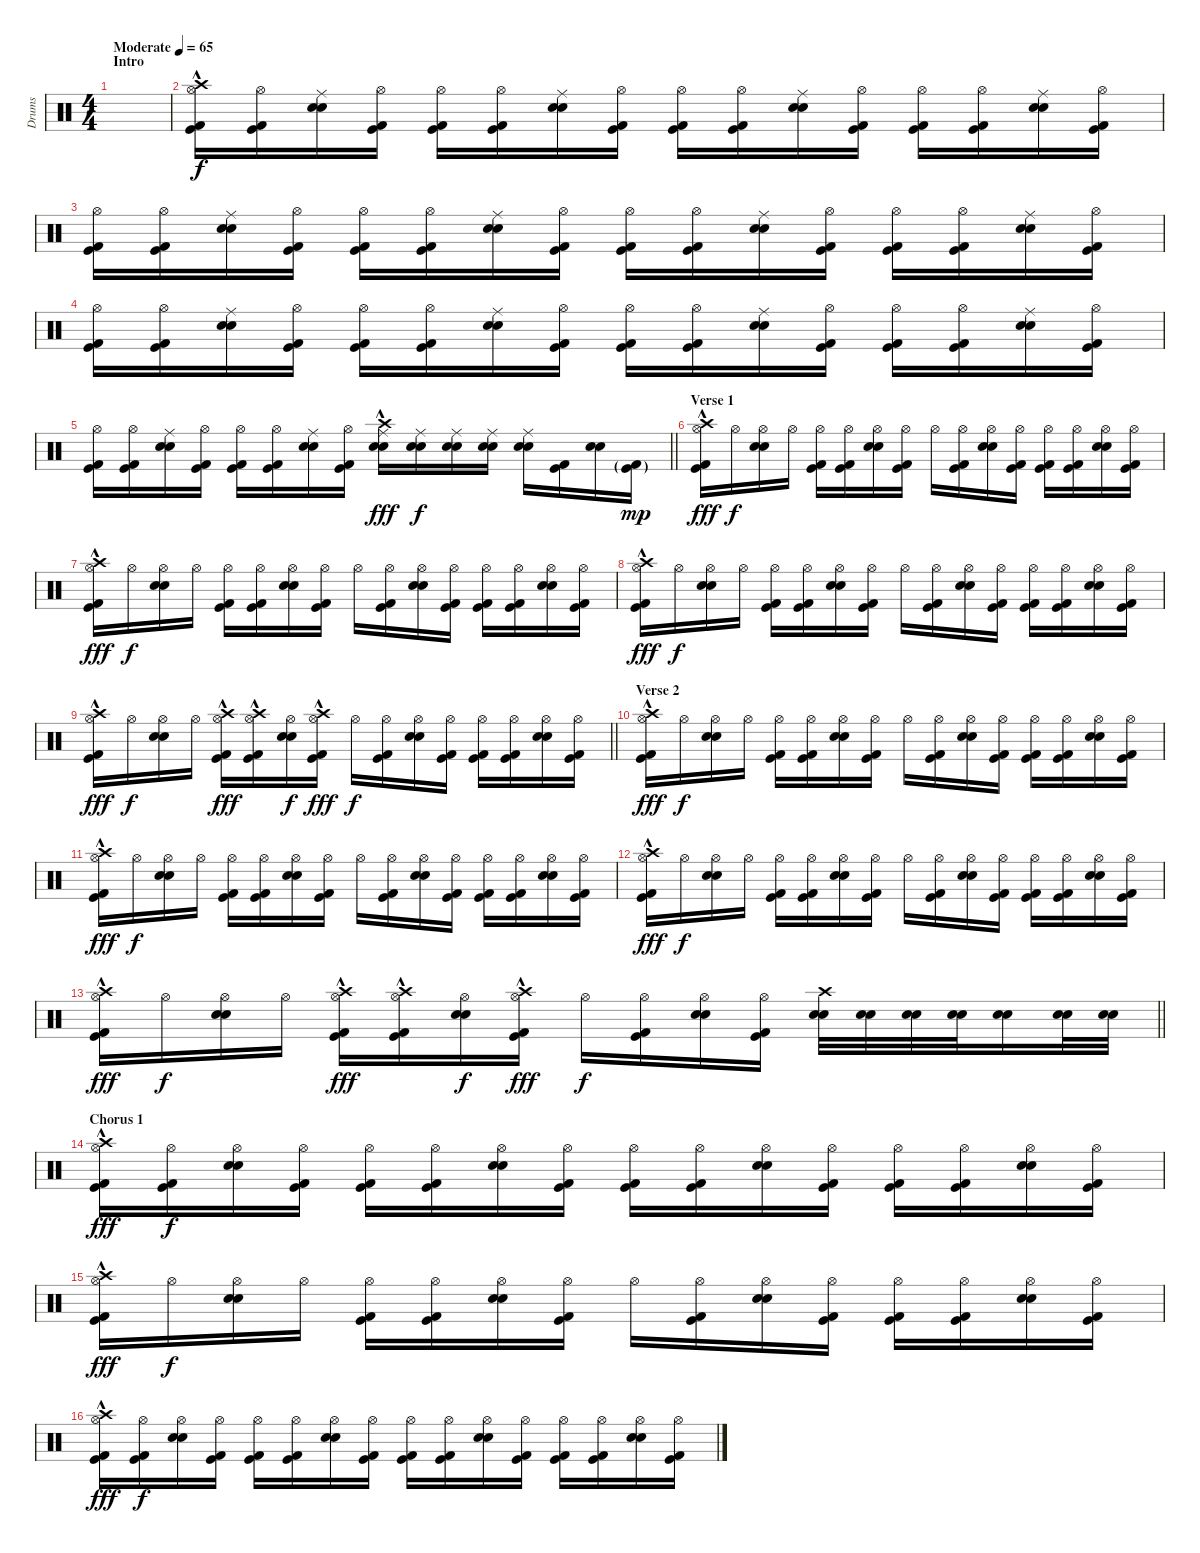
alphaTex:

\track ("Drums" "Drums") {instrument percussion}
\staff {score}
\articulation defaults
\ts (4 4)
\section ("" "Intro")
\tempo (65 "Moderate")
\clef neutral
\ks c
|
("Crash high (hit)"{hac} "Hi-Hat (open)" "Kick (hit) 2" "Kick (hit)").16 ("Hi-Hat (open)" "Kick (hit) 2" "Kick (hit)").16{dy f} ("Ride (middle)" "Electric Snare (hit)" "Snare (hit) 2").16 ("Hi-Hat (open)" "Kick (hit) 2" "Kick (hit)").16 ("Hi-Hat (open)" "Kick (hit) 2" "Kick (hit)").16 ("Hi-Hat (open)" "Kick (hit) 2" "Kick (hit)").16 ("Ride (middle)" "Electric Snare (hit)" "Snare (hit) 2").16 ("Hi-Hat (open)" "Kick (hit) 2" "Kick (hit)").16 ("Hi-Hat (open)" "Kick (hit) 2" "Kick (hit)").16 ("Hi-Hat (open)" "Kick (hit) 2" "Kick (hit)").16 ("Ride (middle)" "Electric Snare (hit)" "Snare (hit) 2").16 ("Hi-Hat (open)" "Kick (hit) 2" "Kick (hit)").16 ("Hi-Hat (open)" "Kick (hit) 2" "Kick (hit)").16 ("Hi-Hat (open)" "Kick (hit) 2" "Kick (hit)").16 ("Ride (middle)" "Electric Snare (hit)" "Snare (hit) 2").16 ("Hi-Hat (open)" "Kick (hit) 2" "Kick (hit)").16 |
("Hi-Hat (open)" "Kick (hit) 2" "Kick (hit)").16 ("Hi-Hat (open)" "Kick (hit) 2" "Kick (hit)").16 ("Ride (middle)" "Electric Snare (hit)" "Snare (hit) 2").16 ("Hi-Hat (open)" "Kick (hit) 2" "Kick (hit)").16 ("Hi-Hat (open)" "Kick (hit) 2" "Kick (hit)").16 ("Hi-Hat (open)" "Kick (hit) 2" "Kick (hit)").16 ("Ride (middle)" "Electric Snare (hit)" "Snare (hit) 2").16 ("Hi-Hat (open)" "Kick (hit) 2" "Kick (hit)").16 ("Hi-Hat (open)" "Kick (hit) 2" "Kick (hit)").16 ("Hi-Hat (open)" "Kick (hit) 2" "Kick (hit)").16 ("Ride (middle)" "Electric Snare (hit)" "Snare (hit) 2").16 ("Hi-Hat (open)" "Kick (hit) 2" "Kick (hit)").16 ("Hi-Hat (open)" "Kick (hit) 2" "Kick (hit)").16 ("Hi-Hat (open)" "Kick (hit) 2" "Kick (hit)").16 ("Ride (middle)" "Electric Snare (hit)" "Snare (hit) 2").16 ("Hi-Hat (open)" "Kick (hit) 2" "Kick (hit)").16 |
("Hi-Hat (open)" "Kick (hit) 2" "Kick (hit)").16 ("Hi-Hat (open)" "Kick (hit) 2" "Kick (hit)").16 ("Ride (middle)" "Electric Snare (hit)" "Snare (hit) 2").16 ("Hi-Hat (open)" "Kick (hit) 2" "Kick (hit)").16 ("Hi-Hat (open)" "Kick (hit) 2" "Kick (hit)").16 ("Hi-Hat (open)" "Kick (hit) 2" "Kick (hit)").16 ("Ride (middle)" "Electric Snare (hit)" "Snare (hit) 2").16 ("Hi-Hat (open)" "Kick (hit) 2" "Kick (hit)").16 ("Hi-Hat (open)" "Kick (hit) 2" "Kick (hit)").16 ("Hi-Hat (open)" "Kick (hit) 2" "Kick (hit)").16 ("Ride (middle)" "Electric Snare (hit)" "Snare (hit) 2").16 ("Hi-Hat (open)" "Kick (hit) 2" "Kick (hit)").16 ("Hi-Hat (open)" "Kick (hit) 2" "Kick (hit)").16 ("Hi-Hat (open)" "Kick (hit) 2" "Kick (hit)").16 ("Ride (middle)" "Electric Snare (hit)" "Snare (hit) 2").16 ("Hi-Hat (open)" "Kick (hit) 2" "Kick (hit)").16 |
\barLineRight lightlight
("Hi-Hat (open)" "Kick (hit) 2" "Kick (hit)").16 ("Hi-Hat (open)" "Kick (hit) 2" "Kick (hit)").16 ("Ride (middle)" "Electric Snare (hit)" "Snare (hit) 2").16 ("Hi-Hat (open)" "Kick (hit) 2" "Kick (hit)").16 ("Hi-Hat (open)" "Kick (hit) 2" "Kick (hit)").16 ("Hi-Hat (open)" "Kick (hit) 2" "Kick (hit)").16 ("Ride (middle)" "Electric Snare (hit)" "Snare (hit) 2").16 ("Hi-Hat (open)" "Kick (hit) 2" "Kick (hit)").16 ("Crash high (hit)"{hac} "Ride (middle)" "Electric Snare (hit)" "Snare (hit) 2").16{dy fff} ("Ride (middle)" "Electric Snare (hit)" "Snare (hit) 2").16{dy f} ("Ride (middle)" "Electric Snare (hit)" "Snare (hit) 2").16 ("Ride (middle)" "Electric Snare (hit)" "Snare (hit) 2").16 ("Ride (middle)" "Electric Snare (hit)" "Snare (hit) 2").16 ("Kick (hit) 2" "Kick (hit)").16 ("Electric Snare (hit)" "Snare (hit) 2").16 ("Kick (hit) 2"{g} "Kick (hit)"{g}).16{dy mp} |
\section ("" "Verse 1")
("Crash high (hit)"{hac} "Hi-Hat (open)" "Kick (hit) 2" "Kick (hit)").16{dy fff} "Hi-Hat (open)".16{dy f} ("Hi-Hat (open)" "Electric Snare (hit)" "Snare (hit) 2").16 "Hi-Hat (open)".16 ("Hi-Hat (open)" "Kick (hit) 2" "Kick (hit)").16 ("Hi-Hat (open)" "Kick (hit) 2" "Kick (hit)").16 ("Hi-Hat (open)" "Electric Snare (hit)" "Snare (hit) 2").16 ("Hi-Hat (open)" "Kick (hit) 2" "Kick (hit)").16 "Hi-Hat (open)".16 ("Hi-Hat (open)" "Kick (hit) 2" "Kick (hit)").16 ("Hi-Hat (open)" "Electric Snare (hit)" "Snare (hit) 2").16 ("Hi-Hat (open)" "Kick (hit) 2" "Kick (hit)").16 ("Hi-Hat (open)" "Kick (hit) 2" "Kick (hit)").16 ("Hi-Hat (open)" "Kick (hit) 2" "Kick (hit)").16 ("Hi-Hat (open)" "Electric Snare (hit)" "Snare (hit) 2").16 ("Hi-Hat (open)" "Kick (hit) 2" "Kick (hit)").16 |
("Crash high (hit)"{hac} "Hi-Hat (open)" "Kick (hit) 2" "Kick (hit)").16{dy fff} "Hi-Hat (open)".16{dy f} ("Hi-Hat (open)" "Electric Snare (hit)" "Snare (hit) 2").16 "Hi-Hat (open)".16 ("Hi-Hat (open)" "Kick (hit) 2" "Kick (hit)").16 ("Hi-Hat (open)" "Kick (hit) 2" "Kick (hit)").16 ("Hi-Hat (open)" "Electric Snare (hit)" "Snare (hit) 2").16 ("Hi-Hat (open)" "Kick (hit) 2" "Kick (hit)").16 "Hi-Hat (open)".16 ("Hi-Hat (open)" "Kick (hit) 2" "Kick (hit)").16 ("Hi-Hat (open)" "Electric Snare (hit)" "Snare (hit) 2").16 ("Hi-Hat (open)" "Kick (hit) 2" "Kick (hit)").16 ("Hi-Hat (open)" "Kick (hit) 2" "Kick (hit)").16 ("Hi-Hat (open)" "Kick (hit) 2" "Kick (hit)").16 ("Hi-Hat (open)" "Electric Snare (hit)" "Snare (hit) 2").16 ("Hi-Hat (open)" "Kick (hit) 2" "Kick (hit)").16 |
("Crash high (hit)"{hac} "Hi-Hat (open)" "Kick (hit) 2" "Kick (hit)").16{dy fff} "Hi-Hat (open)".16{dy f} ("Hi-Hat (open)" "Electric Snare (hit)" "Snare (hit) 2").16 "Hi-Hat (open)".16 ("Hi-Hat (open)" "Kick (hit) 2" "Kick (hit)").16 ("Hi-Hat (open)" "Kick (hit) 2" "Kick (hit)").16 ("Hi-Hat (open)" "Electric Snare (hit)" "Snare (hit) 2").16 ("Hi-Hat (open)" "Kick (hit) 2" "Kick (hit)").16 "Hi-Hat (open)".16 ("Hi-Hat (open)" "Kick (hit) 2" "Kick (hit)").16 ("Hi-Hat (open)" "Electric Snare (hit)" "Snare (hit) 2").16 ("Hi-Hat (open)" "Kick (hit) 2" "Kick (hit)").16 ("Hi-Hat (open)" "Kick (hit) 2" "Kick (hit)").16 ("Hi-Hat (open)" "Kick (hit) 2" "Kick (hit)").16 ("Hi-Hat (open)" "Electric Snare (hit)" "Snare (hit) 2").16 ("Hi-Hat (open)" "Kick (hit) 2" "Kick (hit)").16 |
\barLineRight lightlight
("Crash high (hit)"{hac} "Hi-Hat (open)" "Kick (hit) 2" "Kick (hit)").16{dy fff} "Hi-Hat (open)".16{dy f} ("Hi-Hat (open)" "Electric Snare (hit)" "Snare (hit) 2").16 "Hi-Hat (open)".16 ("Crash high (hit)"{hac} "Hi-Hat (open)" "Kick (hit) 2" "Kick (hit)").16{dy fff} ("Crash high (hit)"{hac} "Hi-Hat (open)" "Kick (hit) 2" "Kick (hit)").16 ("Hi-Hat (open)" "Electric Snare (hit)" "Snare (hit) 2").16{dy f} ("Crash high (hit)"{hac} "Hi-Hat (open)" "Kick (hit) 2" "Kick (hit)").16{dy fff} "Hi-Hat (open)".16{dy f} ("Hi-Hat (open)" "Kick (hit) 2" "Kick (hit)").16 ("Hi-Hat (open)" "Electric Snare (hit)" "Snare (hit) 2").16 ("Hi-Hat (open)" "Kick (hit) 2" "Kick (hit)").16 ("Hi-Hat (open)" "Kick (hit) 2" "Kick (hit)").16 ("Hi-Hat (open)" "Kick (hit) 2" "Kick (hit)").16 ("Hi-Hat (open)" "Electric Snare (hit)" "Snare (hit) 2").16 ("Hi-Hat (open)" "Kick (hit) 2" "Kick (hit)").16 |
\section ("" "Verse 2")
("Crash high (hit)"{hac} "Hi-Hat (open)" "Kick (hit) 2" "Kick (hit)").16{dy fff} "Hi-Hat (open)".16{dy f} ("Hi-Hat (open)" "Electric Snare (hit)" "Snare (hit) 2").16 "Hi-Hat (open)".16 ("Hi-Hat (open)" "Kick (hit) 2" "Kick (hit)").16 ("Hi-Hat (open)" "Kick (hit) 2" "Kick (hit)").16 ("Hi-Hat (open)" "Electric Snare (hit)" "Snare (hit) 2").16 ("Hi-Hat (open)" "Kick (hit) 2" "Kick (hit)").16 "Hi-Hat (open)".16 ("Hi-Hat (open)" "Kick (hit) 2" "Kick (hit)").16 ("Hi-Hat (open)" "Electric Snare (hit)" "Snare (hit) 2").16 ("Hi-Hat (open)" "Kick (hit) 2" "Kick (hit)").16 ("Hi-Hat (open)" "Kick (hit) 2" "Kick (hit)").16 ("Hi-Hat (open)" "Kick (hit) 2" "Kick (hit)").16 ("Hi-Hat (open)" "Electric Snare (hit)" "Snare (hit) 2").16 ("Hi-Hat (open)" "Kick (hit) 2" "Kick (hit)").16 |
("Crash high (hit)"{hac} "Hi-Hat (open)" "Kick (hit) 2" "Kick (hit)").16{dy fff} "Hi-Hat (open)".16{dy f} ("Hi-Hat (open)" "Electric Snare (hit)" "Snare (hit) 2").16 "Hi-Hat (open)".16 ("Hi-Hat (open)" "Kick (hit) 2" "Kick (hit)").16 ("Hi-Hat (open)" "Kick (hit) 2" "Kick (hit)").16 ("Hi-Hat (open)" "Electric Snare (hit)" "Snare (hit) 2").16 ("Hi-Hat (open)" "Kick (hit) 2" "Kick (hit)").16 "Hi-Hat (open)".16 ("Hi-Hat (open)" "Kick (hit) 2" "Kick (hit)").16 ("Hi-Hat (open)" "Electric Snare (hit)" "Snare (hit) 2").16 ("Hi-Hat (open)" "Kick (hit) 2" "Kick (hit)").16 ("Hi-Hat (open)" "Kick (hit) 2" "Kick (hit)").16 ("Hi-Hat (open)" "Kick (hit) 2" "Kick (hit)").16 ("Hi-Hat (open)" "Electric Snare (hit)" "Snare (hit) 2").16 ("Hi-Hat (open)" "Kick (hit) 2" "Kick (hit)").16 |
("Crash high (hit)"{hac} "Hi-Hat (open)" "Kick (hit) 2" "Kick (hit)").16{dy fff} "Hi-Hat (open)".16{dy f} ("Hi-Hat (open)" "Electric Snare (hit)" "Snare (hit) 2").16 "Hi-Hat (open)".16 ("Hi-Hat (open)" "Kick (hit) 2" "Kick (hit)").16 ("Hi-Hat (open)" "Kick (hit) 2" "Kick (hit)").16 ("Hi-Hat (open)" "Electric Snare (hit)" "Snare (hit) 2").16 ("Hi-Hat (open)" "Kick (hit) 2" "Kick (hit)").16 "Hi-Hat (open)".16 ("Hi-Hat (open)" "Kick (hit) 2" "Kick (hit)").16 ("Hi-Hat (open)" "Electric Snare (hit)" "Snare (hit) 2").16 ("Hi-Hat (open)" "Kick (hit) 2" "Kick (hit)").16 ("Hi-Hat (open)" "Kick (hit) 2" "Kick (hit)").16 ("Hi-Hat (open)" "Kick (hit) 2" "Kick (hit)").16 ("Hi-Hat (open)" "Electric Snare (hit)" "Snare (hit) 2").16 ("Hi-Hat (open)" "Kick (hit) 2" "Kick (hit)").16 |
\barLineRight lightlight
("Crash high (hit)"{hac} "Hi-Hat (open)" "Kick (hit) 2" "Kick (hit)").16{dy fff} "Hi-Hat (open)".16{dy f} ("Hi-Hat (open)" "Electric Snare (hit)" "Snare (hit) 2").16 "Hi-Hat (open)".16 ("Crash high (hit)"{hac} "Hi-Hat (open)" "Kick (hit) 2" "Kick (hit)").16{dy fff} ("Crash high (hit)"{hac} "Hi-Hat (open)" "Kick (hit) 2" "Kick (hit)").16 ("Hi-Hat (open)" "Electric Snare (hit)" "Snare (hit) 2").16{dy f} ("Crash high (hit)"{hac} "Hi-Hat (open)" "Kick (hit) 2" "Kick (hit)").16{dy fff} "Hi-Hat (open)".16{dy f} ("Hi-Hat (open)" "Kick (hit) 2" "Kick (hit)").16 ("Hi-Hat (open)" "Electric Snare (hit)" "Snare (hit) 2").16 ("Hi-Hat (open)" "Kick (hit) 2" "Kick (hit)").16 ("Crash high (hit)" "Electric Snare (hit)" "Snare (hit) 2").32 ("Electric Snare (hit)" "Snare (hit) 2").32 ("Electric Snare (hit)" "Snare (hit) 2").32 ("Electric Snare (hit)" "Snare (hit) 2").32 ("Electric Snare (hit)" "Snare (hit) 2").16 ("Electric Snare (hit)" "Snare (hit) 2").32 ("Electric Snare (hit)" "Snare (hit) 2").32 |
\section ("" "Chorus 1")
("Crash high (hit)"{hac} "Hi-Hat (open)" "Kick (hit) 2" "Kick (hit)").16{dy fff} ("Hi-Hat (open)" "Kick (hit) 2" "Kick (hit)").16{dy f} ("Hi-Hat (open)" "Electric Snare (hit)" "Snare (hit) 2").16 ("Hi-Hat (open)" "Kick (hit) 2" "Kick (hit)").16 ("Hi-Hat (open)" "Kick (hit) 2" "Kick (hit)").16 ("Hi-Hat (open)" "Kick (hit) 2" "Kick (hit)").16 ("Hi-Hat (open)" "Electric Snare (hit)" "Snare (hit) 2").16 ("Hi-Hat (open)" "Kick (hit) 2" "Kick (hit)").16 ("Hi-Hat (open)" "Kick (hit) 2" "Kick (hit)").16 ("Hi-Hat (open)" "Kick (hit) 2" "Kick (hit)").16 ("Hi-Hat (open)" "Electric Snare (hit)" "Snare (hit) 2").16 ("Hi-Hat (open)" "Kick (hit) 2" "Kick (hit)").16 ("Hi-Hat (open)" "Kick (hit) 2" "Kick (hit)").16 ("Hi-Hat (open)" "Kick (hit) 2" "Kick (hit)").16 ("Hi-Hat (open)" "Electric Snare (hit)" "Snare (hit) 2").16 ("Hi-Hat (open)" "Kick (hit) 2" "Kick (hit)").16 |
("Crash high (hit)"{hac} "Hi-Hat (open)" "Kick (hit) 2" "Kick (hit)").16{dy fff} "Hi-Hat (open)".16{dy f} ("Hi-Hat (open)" "Electric Snare (hit)" "Snare (hit) 2").16 "Hi-Hat (open)".16 ("Hi-Hat (open)" "Kick (hit) 2" "Kick (hit)").16 ("Hi-Hat (open)" "Kick (hit) 2" "Kick (hit)").16 ("Hi-Hat (open)" "Electric Snare (hit)" "Snare (hit) 2").16 ("Hi-Hat (open)" "Kick (hit) 2" "Kick (hit)").16 "Hi-Hat (open)".16 ("Hi-Hat (open)" "Kick (hit) 2" "Kick (hit)").16 ("Hi-Hat (open)" "Electric Snare (hit)" "Snare (hit) 2").16 ("Hi-Hat (open)" "Kick (hit) 2" "Kick (hit)").16 ("Hi-Hat (open)" "Kick (hit) 2" "Kick (hit)").16 ("Hi-Hat (open)" "Kick (hit) 2" "Kick (hit)").16 ("Hi-Hat (open)" "Electric Snare (hit)" "Snare (hit) 2").16 ("Hi-Hat (open)" "Kick (hit) 2" "Kick (hit)").16 |
("Crash high (hit)"{hac} "Hi-Hat (open)" "Kick (hit) 2" "Kick (hit)").16{dy fff} ("Hi-Hat (open)" "Kick (hit) 2" "Kick (hit)").16{dy f} ("Hi-Hat (open)" "Electric Snare (hit)" "Snare (hit) 2").16 ("Hi-Hat (open)" "Kick (hit) 2" "Kick (hit)").16 ("Hi-Hat (open)" "Kick (hit) 2" "Kick (hit)").16 ("Hi-Hat (open)" "Kick (hit) 2" "Kick (hit)").16 ("Hi-Hat (open)" "Electric Snare (hit)" "Snare (hit) 2").16 ("Hi-Hat (open)" "Kick (hit) 2" "Kick (hit)").16 ("Hi-Hat (open)" "Kick (hit) 2" "Kick (hit)").16 ("Hi-Hat (open)" "Kick (hit) 2" "Kick (hit)").16 ("Hi-Hat (open)" "Electric Snare (hit)" "Snare (hit) 2").16 ("Hi-Hat (open)" "Kick (hit) 2" "Kick (hit)").16 ("Hi-Hat (open)" "Kick (hit) 2" "Kick (hit)").16 ("Hi-Hat (open)" "Kick (hit) 2" "Kick (hit)").16 ("Hi-Hat (open)" "Electric Snare (hit)" "Snare (hit) 2").16 ("Hi-Hat (open)" "Kick (hit) 2" "Kick (hit)").16
